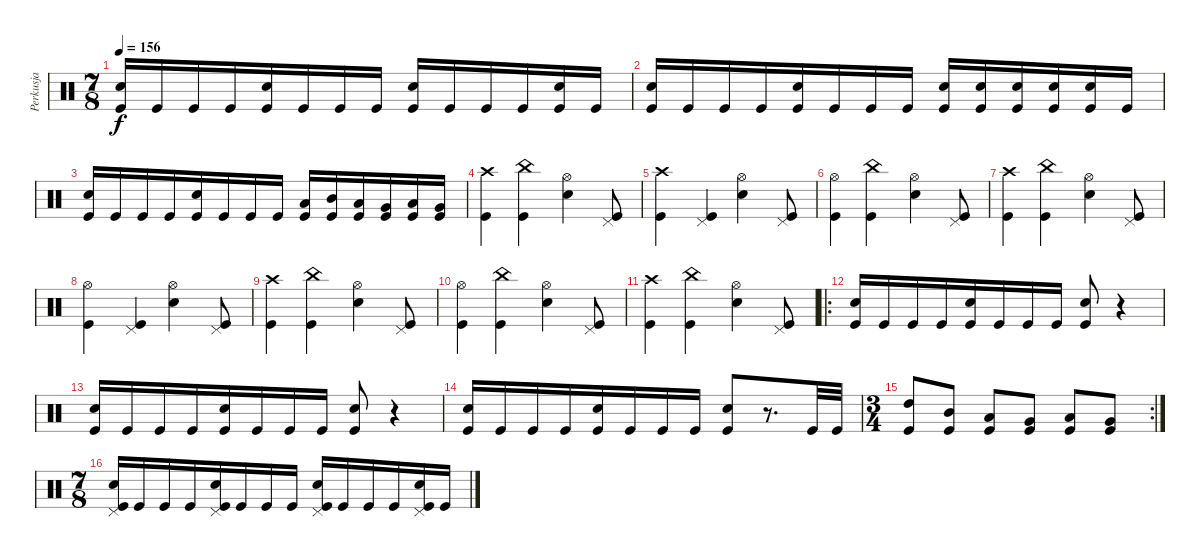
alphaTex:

\track ("Perkusja" "Perkusja") {instrument percussion}
\staff {score}
\articulation defaults
\ts (7 8)
\tempo 156
\clef neutral
\ks c
("Snare (hit) 2" "Kick (hit)").16{dy f} "Kick (hit)".16 "Kick (hit)".16 "Kick (hit)".16 ("Snare (hit) 2" "Kick (hit)").16 "Kick (hit)".16 "Kick (hit)".16 "Kick (hit)".16 ("Snare (hit) 2" "Kick (hit)").16 "Kick (hit)".16 "Kick (hit)".16 "Kick (hit)".16 ("Snare (hit) 2" "Kick (hit)").16 "Kick (hit)".16 |
("Snare (hit) 2" "Kick (hit)").16 "Kick (hit)".16 "Kick (hit)".16 "Kick (hit)".16 ("Snare (hit) 2" "Kick (hit)").16 "Kick (hit)".16 "Kick (hit)".16 "Kick (hit)".16 ("Snare (hit) 2" "Kick (hit)").16 ("Snare (hit) 2" "Kick (hit)").16 ("Snare (hit) 2" "Kick (hit)").16 ("Snare (hit) 2" "Kick (hit)").16 ("Snare (hit) 2" "Kick (hit)").16 "Kick (hit)".16 |
("Snare (hit) 2" "Kick (hit)").16 "Kick (hit)".16 "Kick (hit)".16 "Kick (hit)".16 ("Snare (hit) 2" "Kick (hit)").16 "Kick (hit)".16 "Kick (hit)".16 "Kick (hit)".16 ("Low Tom (hit)" "Kick (hit)").16 ("Mid Tom (hit)" "Kick (hit)").16 ("Low Tom (hit)" "Kick (hit)").16 ("Very Low Tom (hit)" "Kick (hit)").16 ("Low Tom (hit)" "Kick (hit)").16 ("Very Low Tom (hit)" "Kick (hit)").16 |
("Crash high (hit)" "Kick (hit)").4 ("China (hit)" "Kick (hit)").4 ("Hi-Hat (open)" "Snare (hit) 2").4 ("Pedal Hi-Hat (hit)" "Kick (hit)").8 |
("Crash high (hit)" "Kick (hit)").4 ("Pedal Hi-Hat (hit)" "Kick (hit)").4 ("Hi-Hat (open)" "Snare (hit) 2").4 ("Pedal Hi-Hat (hit)" "Kick (hit)").8 |
("Hi-Hat (open)" "Kick (hit)").4 ("China (hit)" "Kick (hit)").4 ("Hi-Hat (open)" "Snare (hit) 2").4 ("Pedal Hi-Hat (hit)" "Kick (hit)").8 |
("Crash high (hit)" "Kick (hit)").4 ("China (hit)" "Kick (hit)").4 ("Hi-Hat (open)" "Snare (hit) 2").4 ("Pedal Hi-Hat (hit)" "Kick (hit)").8 |
("Hi-Hat (open)" "Kick (hit)").4 ("Pedal Hi-Hat (hit)" "Kick (hit)").4 ("Hi-Hat (open)" "Snare (hit) 2").4 ("Pedal Hi-Hat (hit)" "Kick (hit)").8 |
("Crash high (hit)" "Kick (hit)").4 ("China (hit)" "Kick (hit)").4 ("Hi-Hat (open)" "Snare (hit) 2").4 ("Pedal Hi-Hat (hit)" "Kick (hit)").8 |
("Hi-Hat (open)" "Kick (hit)").4 ("China (hit)" "Kick (hit)").4 ("Hi-Hat (open)" "Snare (hit) 2").4 ("Pedal Hi-Hat (hit)" "Kick (hit)").8 |
("Crash high (hit)" "Kick (hit)").4 ("China (hit)" "Kick (hit)").4 ("Hi-Hat (open)" "Snare (hit) 2").4 ("Pedal Hi-Hat (hit)" "Kick (hit)").8 |
\ro
("Snare (hit) 2" "Kick (hit)").16 "Kick (hit)".16 "Kick (hit)".16 "Kick (hit)".16 ("Snare (hit) 2" "Kick (hit)").16 "Kick (hit)".16 "Kick (hit)".16 "Kick (hit)".16 ("Snare (hit) 2" "Kick (hit)").8 r.4 |
("Snare (hit) 2" "Kick (hit)").16 "Kick (hit)".16 "Kick (hit)".16 "Kick (hit)".16 ("Snare (hit) 2" "Kick (hit)").16 "Kick (hit)".16 "Kick (hit)".16 "Kick (hit)".16 ("Snare (hit) 2" "Kick (hit)").8 r.4 |
("Snare (hit) 2" "Kick (hit)").16 "Kick (hit)".16 "Kick (hit)".16 "Kick (hit)".16 ("Snare (hit) 2" "Kick (hit)").16 "Kick (hit)".16 "Kick (hit)".16 "Kick (hit)".16 ("Snare (hit) 2" "Kick (hit)").8 r.8{d} "Kick (hit)".32 "Kick (hit)".32 |
\rc 2
\ts (3 4)
("High Tom (hit)" "Kick (hit)").8 ("Mid Tom (hit)" "Kick (hit)").8 ("Low Tom (hit)" "Kick (hit)").8 ("Very Low Tom (hit)" "Kick (hit)").8 ("Low Tom (hit)" "Kick (hit)").8 ("Very Low Tom (hit)" "Kick (hit)").8 |
\ts (7 8)
("Pedal Hi-Hat (hit)" "Snare (hit) 2" "Kick (hit)").16 "Kick (hit)".16 "Kick (hit)".16 "Kick (hit)".16 ("Pedal Hi-Hat (hit)" "Snare (hit) 2" "Kick (hit)").16 "Kick (hit)".16 "Kick (hit)".16 "Kick (hit)".16 ("Pedal Hi-Hat (hit)" "Snare (hit) 2" "Kick (hit)").16 "Kick (hit)".16 "Kick (hit)".16 "Kick (hit)".16 ("Pedal Hi-Hat (hit)" "Snare (hit) 2" "Kick (hit)").16 "Kick (hit)".16
